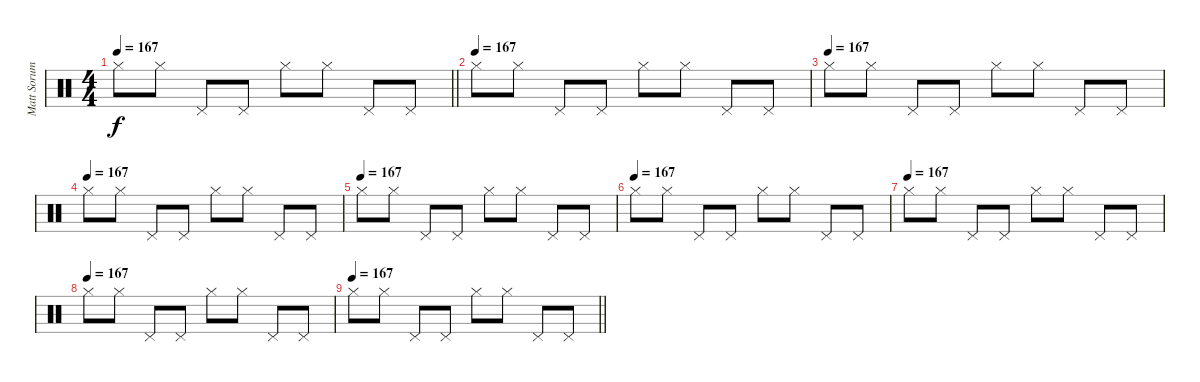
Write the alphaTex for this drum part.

\track ("Matt Sorum" "Matt Sorum") {instrument percussion}
\staff {score}
\articulation defaults
\ts (4 4)
\tempo 167
\clef neutral
\barLineRight lightlight
\ks c "Hi-Hat (closed)".8{dy f} "Hi-Hat (closed)".8 "Pedal Hi-Hat (hit)".8 "Pedal Hi-Hat (hit)".8 "Hi-Hat (closed)".8 "Hi-Hat (closed)".8 "Pedal Hi-Hat (hit)".8 "Pedal Hi-Hat (hit)".8
|
\tempo (167)
"Hi-Hat (closed)".8 "Hi-Hat (closed)".8 "Pedal Hi-Hat (hit)".8 "Pedal Hi-Hat (hit)".8 "Hi-Hat (closed)".8 "Hi-Hat (closed)".8 "Pedal Hi-Hat (hit)".8 "Pedal Hi-Hat (hit)".8 |
\tempo (167)
"Hi-Hat (closed)".8 "Hi-Hat (closed)".8 "Pedal Hi-Hat (hit)".8 "Pedal Hi-Hat (hit)".8 "Hi-Hat (closed)".8 "Hi-Hat (closed)".8 "Pedal Hi-Hat (hit)".8 "Pedal Hi-Hat (hit)".8 |
\tempo (167)
"Hi-Hat (closed)".8 "Hi-Hat (closed)".8 "Pedal Hi-Hat (hit)".8 "Pedal Hi-Hat (hit)".8 "Hi-Hat (closed)".8 "Hi-Hat (closed)".8 "Pedal Hi-Hat (hit)".8 "Pedal Hi-Hat (hit)".8 |
\tempo (167)
"Hi-Hat (closed)".8 "Hi-Hat (closed)".8 "Pedal Hi-Hat (hit)".8 "Pedal Hi-Hat (hit)".8 "Hi-Hat (closed)".8 "Hi-Hat (closed)".8 "Pedal Hi-Hat (hit)".8 "Pedal Hi-Hat (hit)".8 |
\tempo (167)
"Hi-Hat (closed)".8 "Hi-Hat (closed)".8 "Pedal Hi-Hat (hit)".8 "Pedal Hi-Hat (hit)".8 "Hi-Hat (closed)".8 "Hi-Hat (closed)".8 "Pedal Hi-Hat (hit)".8 "Pedal Hi-Hat (hit)".8 |
\tempo (167)
"Hi-Hat (closed)".8 "Hi-Hat (closed)".8 "Pedal Hi-Hat (hit)".8 "Pedal Hi-Hat (hit)".8 "Hi-Hat (closed)".8 "Hi-Hat (closed)".8 "Pedal Hi-Hat (hit)".8 "Pedal Hi-Hat (hit)".8 |
\tempo (167)
"Hi-Hat (closed)".8 "Hi-Hat (closed)".8 "Pedal Hi-Hat (hit)".8 "Pedal Hi-Hat (hit)".8 "Hi-Hat (closed)".8 "Hi-Hat (closed)".8 "Pedal Hi-Hat (hit)".8 "Pedal Hi-Hat (hit)".8 |
\tempo 167
\barLineRight lightlight "Hi-Hat (closed)".8 "Hi-Hat (closed)".8 "Pedal Hi-Hat (hit)".8 "Pedal Hi-Hat (hit)".8 "Hi-Hat (closed)".8 "Hi-Hat (closed)".8 "Pedal Hi-Hat (hit)".8 "Pedal Hi-Hat (hit)".8
